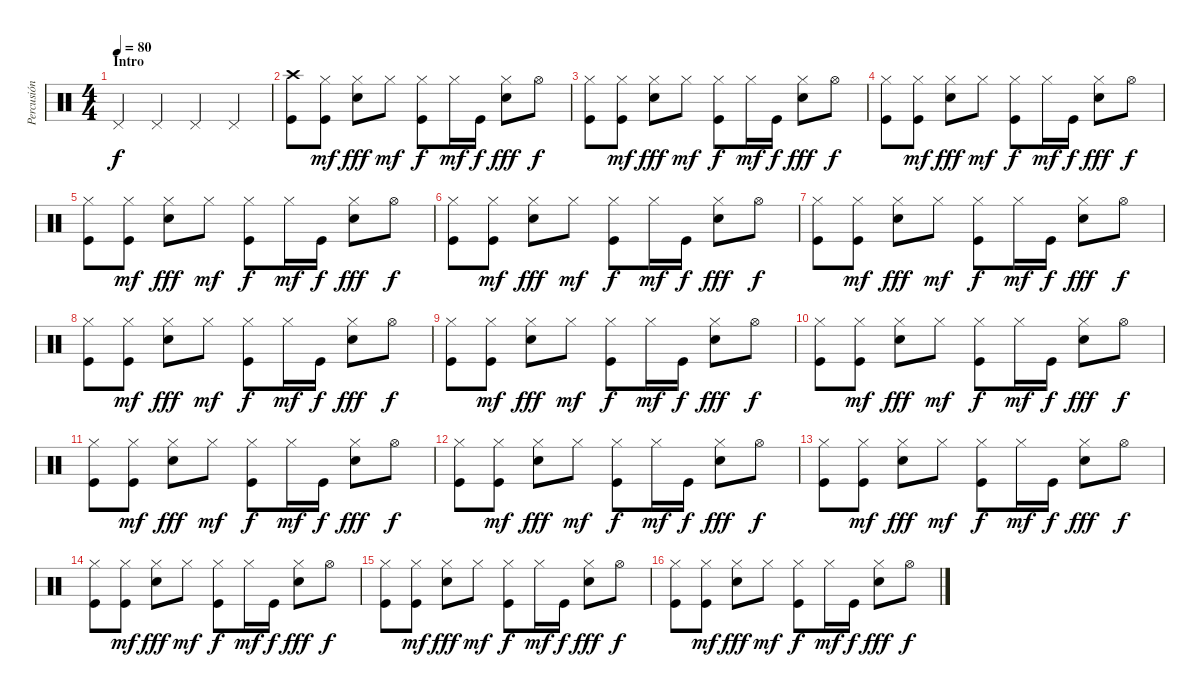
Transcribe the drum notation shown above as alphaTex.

\track ("Percusión" "Percusión") {instrument percussion}
\staff {score}
\articulation defaults
\ts (4 4)
\section ("" "Intro")
\tempo 80
\clef neutral
\ks c "Pedal Hi-Hat (hit)".4{dy f} "Pedal Hi-Hat (hit)".4 "Pedal Hi-Hat (hit)".4 "Pedal Hi-Hat (hit)".4
|
("Kick (hit)" "Crash high (hit)").8 ("Kick (hit)" "Hi-Hat (closed)").8{dy mf} ("Snare (hit) 2" "Hi-Hat (closed)").8{dy fff} "Hi-Hat (closed)".8{dy mf} ("Kick (hit)" "Hi-Hat (closed)").8{dy f} "Hi-Hat (closed)".16{dy mf} "Kick (hit)".16{dy f} ("Snare (hit) 2" "Hi-Hat (closed)").8{dy fff} "Hi-Hat (open)".8{dy f} |
("Kick (hit)" "Hi-Hat (closed)").8 ("Kick (hit)" "Hi-Hat (closed)").8{dy mf} ("Snare (hit) 2" "Hi-Hat (closed)").8{dy fff} "Hi-Hat (closed)".8{dy mf} ("Kick (hit)" "Hi-Hat (closed)").8{dy f} "Hi-Hat (closed)".16{dy mf} "Kick (hit)".16{dy f} ("Snare (hit) 2" "Hi-Hat (closed)").8{dy fff} "Hi-Hat (open)".8{dy f} |
("Kick (hit)" "Hi-Hat (closed)").8 ("Kick (hit)" "Hi-Hat (closed)").8{dy mf} ("Snare (hit) 2" "Hi-Hat (closed)").8{dy fff} "Hi-Hat (closed)".8{dy mf} ("Kick (hit)" "Hi-Hat (closed)").8{dy f} "Hi-Hat (closed)".16{dy mf} "Kick (hit)".16{dy f} ("Snare (hit) 2" "Hi-Hat (closed)").8{dy fff} "Hi-Hat (open)".8{dy f} |
("Kick (hit)" "Hi-Hat (closed)").8 ("Kick (hit)" "Hi-Hat (closed)").8{dy mf} ("Snare (hit) 2" "Hi-Hat (closed)").8{dy fff} "Hi-Hat (closed)".8{dy mf} ("Kick (hit)" "Hi-Hat (closed)").8{dy f} "Hi-Hat (closed)".16{dy mf} "Kick (hit)".16{dy f} ("Snare (hit) 2" "Hi-Hat (closed)").8{dy fff} "Hi-Hat (open)".8{dy f} |
("Kick (hit)" "Hi-Hat (closed)").8 ("Kick (hit)" "Hi-Hat (closed)").8{dy mf} ("Snare (hit) 2" "Hi-Hat (closed)").8{dy fff} "Hi-Hat (closed)".8{dy mf} ("Kick (hit)" "Hi-Hat (closed)").8{dy f} "Hi-Hat (closed)".16{dy mf} "Kick (hit)".16{dy f} ("Snare (hit) 2" "Hi-Hat (closed)").8{dy fff} "Hi-Hat (open)".8{dy f} |
("Kick (hit)" "Hi-Hat (closed)").8 ("Kick (hit)" "Hi-Hat (closed)").8{dy mf} ("Snare (hit) 2" "Hi-Hat (closed)").8{dy fff} "Hi-Hat (closed)".8{dy mf} ("Kick (hit)" "Hi-Hat (closed)").8{dy f} "Hi-Hat (closed)".16{dy mf} "Kick (hit)".16{dy f} ("Snare (hit) 2" "Hi-Hat (closed)").8{dy fff} "Hi-Hat (open)".8{dy f} |
("Kick (hit)" "Hi-Hat (closed)").8 ("Kick (hit)" "Hi-Hat (closed)").8{dy mf} ("Snare (hit) 2" "Hi-Hat (closed)").8{dy fff} "Hi-Hat (closed)".8{dy mf} ("Kick (hit)" "Hi-Hat (closed)").8{dy f} "Hi-Hat (closed)".16{dy mf} "Kick (hit)".16{dy f} ("Snare (hit) 2" "Hi-Hat (closed)").8{dy fff} "Hi-Hat (open)".8{dy f} |
("Kick (hit)" "Hi-Hat (closed)").8 ("Kick (hit)" "Hi-Hat (closed)").8{dy mf} ("Snare (hit) 2" "Hi-Hat (closed)").8{dy fff} "Hi-Hat (closed)".8{dy mf} ("Kick (hit)" "Hi-Hat (closed)").8{dy f} "Hi-Hat (closed)".16{dy mf} "Kick (hit)".16{dy f} ("Snare (hit) 2" "Hi-Hat (closed)").8{dy fff} "Hi-Hat (open)".8{dy f} |
("Kick (hit)" "Hi-Hat (closed)").8 ("Kick (hit)" "Hi-Hat (closed)").8{dy mf} ("Snare (hit) 2" "Hi-Hat (closed)").8{dy fff} "Hi-Hat (closed)".8{dy mf} ("Kick (hit)" "Hi-Hat (closed)").8{dy f} "Hi-Hat (closed)".16{dy mf} "Kick (hit)".16{dy f} ("Snare (hit) 2" "Hi-Hat (closed)").8{dy fff} "Hi-Hat (open)".8{dy f} |
("Kick (hit)" "Hi-Hat (closed)").8 ("Kick (hit)" "Hi-Hat (closed)").8{dy mf} ("Snare (hit) 2" "Hi-Hat (closed)").8{dy fff} "Hi-Hat (closed)".8{dy mf} ("Kick (hit)" "Hi-Hat (closed)").8{dy f} "Hi-Hat (closed)".16{dy mf} "Kick (hit)".16{dy f} ("Snare (hit) 2" "Hi-Hat (closed)").8{dy fff} "Hi-Hat (open)".8{dy f} |
("Kick (hit)" "Hi-Hat (closed)").8 ("Kick (hit)" "Hi-Hat (closed)").8{dy mf} ("Snare (hit) 2" "Hi-Hat (closed)").8{dy fff} "Hi-Hat (closed)".8{dy mf} ("Kick (hit)" "Hi-Hat (closed)").8{dy f} "Hi-Hat (closed)".16{dy mf} "Kick (hit)".16{dy f} ("Snare (hit) 2" "Hi-Hat (closed)").8{dy fff} "Hi-Hat (open)".8{dy f} |
("Kick (hit)" "Hi-Hat (closed)").8 ("Kick (hit)" "Hi-Hat (closed)").8{dy mf} ("Snare (hit) 2" "Hi-Hat (closed)").8{dy fff} "Hi-Hat (closed)".8{dy mf} ("Kick (hit)" "Hi-Hat (closed)").8{dy f} "Hi-Hat (closed)".16{dy mf} "Kick (hit)".16{dy f} ("Snare (hit) 2" "Hi-Hat (closed)").8{dy fff} "Hi-Hat (open)".8{dy f} |
("Kick (hit)" "Hi-Hat (closed)").8 ("Kick (hit)" "Hi-Hat (closed)").8{dy mf} ("Snare (hit) 2" "Hi-Hat (closed)").8{dy fff} "Hi-Hat (closed)".8{dy mf} ("Kick (hit)" "Hi-Hat (closed)").8{dy f} "Hi-Hat (closed)".16{dy mf} "Kick (hit)".16{dy f} ("Snare (hit) 2" "Hi-Hat (closed)").8{dy fff} "Hi-Hat (open)".8{dy f} |
("Kick (hit)" "Hi-Hat (closed)").8 ("Kick (hit)" "Hi-Hat (closed)").8{dy mf} ("Snare (hit) 2" "Hi-Hat (closed)").8{dy fff} "Hi-Hat (closed)".8{dy mf} ("Kick (hit)" "Hi-Hat (closed)").8{dy f} "Hi-Hat (closed)".16{dy mf} "Kick (hit)".16{dy f} ("Snare (hit) 2" "Hi-Hat (closed)").8{dy fff} "Hi-Hat (open)".8{dy f} |
("Kick (hit)" "Hi-Hat (closed)").8 ("Kick (hit)" "Hi-Hat (closed)").8{dy mf} ("Snare (hit) 2" "Hi-Hat (closed)").8{dy fff} "Hi-Hat (closed)".8{dy mf} ("Kick (hit)" "Hi-Hat (closed)").8{dy f} "Hi-Hat (closed)".16{dy mf} "Kick (hit)".16{dy f} ("Snare (hit) 2" "Hi-Hat (closed)").8{dy fff} "Hi-Hat (open)".8{dy f}
